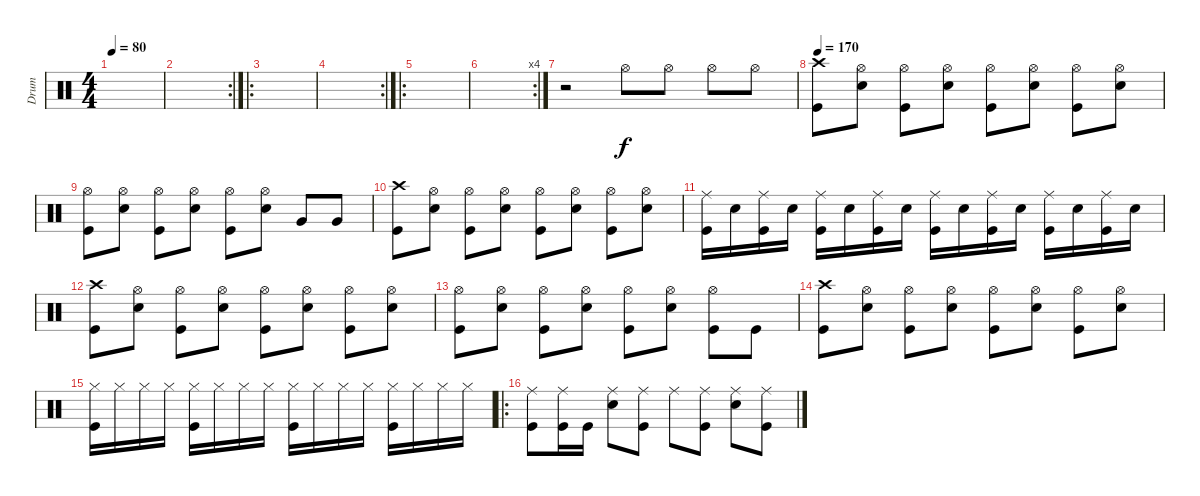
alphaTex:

\track ("Drum" "Drum") {instrument percussion}
\staff {score}
\articulation defaults
\ts (4 4)
\tempo 80
\clef neutral
\ks c
|
\rc 2
|
\ro
|
\rc 2
|
\ro
|
\rc 4
|
r.2 "Hi-Hat (open)".8 "Hi-Hat (open)".8 "Hi-Hat (open)".8 "Hi-Hat (open)".8 |
\tempo 170
("Kick (hit)" "Crash high (hit)").8 ("Electric Snare (hit)" "Hi-Hat (open)").8 ("Kick (hit)" "Hi-Hat (open)").8 ("Electric Snare (hit)" "Hi-Hat (open)").8 ("Kick (hit)" "Hi-Hat (open)").8 ("Electric Snare (hit)" "Hi-Hat (open)").8 ("Kick (hit)" "Hi-Hat (open)").8 ("Electric Snare (hit)" "Hi-Hat (open)").8 |
("Kick (hit)" "Hi-Hat (open)").8 ("Electric Snare (hit)" "Hi-Hat (open)").8 ("Kick (hit)" "Hi-Hat (open)").8 ("Electric Snare (hit)" "Hi-Hat (open)").8 ("Kick (hit)" "Hi-Hat (open)").8 ("Electric Snare (hit)" "Hi-Hat (open)").8 "Very Low Tom (hit)".8 "Very Low Tom (hit)".8 |
("Kick (hit)" "Crash high (hit)").8 ("Electric Snare (hit)" "Hi-Hat (open)").8 ("Kick (hit)" "Hi-Hat (open)").8 ("Electric Snare (hit)" "Hi-Hat (open)").8 ("Kick (hit)" "Hi-Hat (open)").8 ("Electric Snare (hit)" "Hi-Hat (open)").8 ("Kick (hit)" "Hi-Hat (open)").8 ("Electric Snare (hit)" "Hi-Hat (open)").8 |
("Kick (hit)" "Ride (middle)").16 "Electric Snare (hit)".16 ("Kick (hit)" "Ride (middle)").16 "Electric Snare (hit)".16 ("Kick (hit)" "Ride (middle)").16 "Electric Snare (hit)".16 ("Kick (hit)" "Ride (middle)").16 "Electric Snare (hit)".16 ("Kick (hit)" "Ride (middle)").16 "Electric Snare (hit)".16 ("Kick (hit)" "Ride (middle)").16 "Electric Snare (hit)".16 ("Kick (hit)" "Ride (middle)").16 "Electric Snare (hit)".16 ("Kick (hit)" "Ride (middle)").16 "Electric Snare (hit)".16 |
("Kick (hit)" "Crash high (hit)").8 ("Electric Snare (hit)" "Hi-Hat (open)").8 ("Kick (hit)" "Hi-Hat (open)").8 ("Electric Snare (hit)" "Hi-Hat (open)").8 ("Kick (hit)" "Hi-Hat (open)").8 ("Electric Snare (hit)" "Hi-Hat (open)").8 ("Kick (hit)" "Hi-Hat (open)").8 ("Electric Snare (hit)" "Hi-Hat (open)").8 |
("Kick (hit)" "Hi-Hat (open)").8 ("Electric Snare (hit)" "Hi-Hat (open)").8 ("Kick (hit)" "Hi-Hat (open)").8 ("Electric Snare (hit)" "Hi-Hat (open)").8 ("Kick (hit)" "Hi-Hat (open)").8 ("Electric Snare (hit)" "Hi-Hat (open)").8 ("Kick (hit)" "Hi-Hat (open)").8 "Kick (hit)".8 |
("Kick (hit)" "Crash high (hit)").8 ("Electric Snare (hit)" "Hi-Hat (open)").8 ("Kick (hit)" "Hi-Hat (open)").8 ("Electric Snare (hit)" "Hi-Hat (open)").8 ("Kick (hit)" "Hi-Hat (open)").8 ("Electric Snare (hit)" "Hi-Hat (open)").8 ("Kick (hit)" "Hi-Hat (open)").8 ("Electric Snare (hit)" "Hi-Hat (open)").8 |
("Kick (hit)" "Hi-Hat (closed)").16 "Hi-Hat (closed)".16 "Hi-Hat (closed)".16 "Hi-Hat (closed)".16 ("Kick (hit)" "Hi-Hat (closed)").16 "Hi-Hat (closed)".16 "Hi-Hat (closed)".16 "Hi-Hat (closed)".16 ("Kick (hit)" "Hi-Hat (closed)").16 "Hi-Hat (closed)".16 "Hi-Hat (closed)".16 "Hi-Hat (closed)".16 ("Kick (hit)" "Hi-Hat (closed)").16 "Hi-Hat (closed)".16 "Hi-Hat (closed)".16 "Hi-Hat (closed)".16 |
\ro
("Kick (hit)" "Ride (middle)").8 ("Kick (hit)" "Ride (middle)").16 "Kick (hit)".16 ("Electric Snare (hit)" "Ride (middle)").8 ("Kick (hit)" "Ride (middle)").8 "Ride (middle)".8 ("Kick (hit)" "Ride (middle)").8 ("Electric Snare (hit)" "Ride (middle)").8 ("Kick (hit)" "Ride (middle)").8
